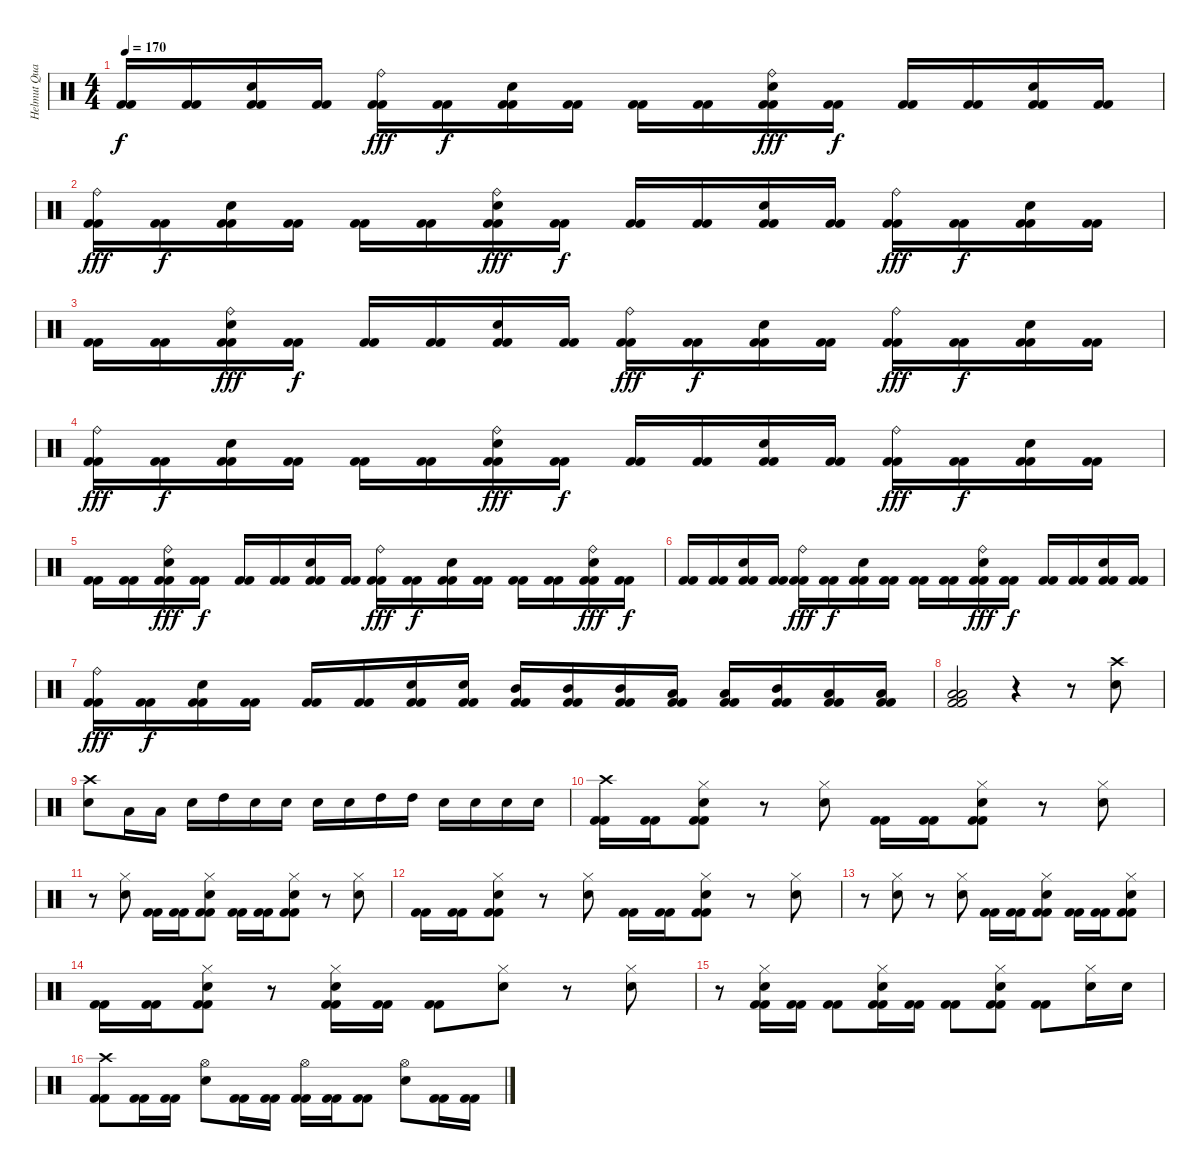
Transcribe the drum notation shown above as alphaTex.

\track ("Helmut Quacken" "Helmut Qua") {instrument percussion}
\staff {score}
\articulation defaults
\ts (4 4)
\tempo 170
\clef neutral
\ks c
("Kick (hit) 2" "Kick (hit) 2").16{dy f} ("Kick (hit) 2" "Kick (hit) 2").16 ("Electric Snare (hit)" "Kick (hit) 2" "Kick (hit) 2").16 ("Kick (hit) 2" "Kick (hit) 2").16 ("Ride (bell)" "Kick (hit) 2" "Kick (hit) 2").16{dy fff} ("Kick (hit) 2" "Kick (hit) 2").16{dy f} ("Electric Snare (hit)" "Kick (hit) 2" "Kick (hit) 2").16 ("Kick (hit) 2" "Kick (hit) 2").16 ("Kick (hit) 2" "Kick (hit) 2").16 ("Kick (hit) 2" "Kick (hit) 2").16 ("Ride (bell)" "Electric Snare (hit)" "Kick (hit) 2" "Kick (hit) 2").16{dy fff} ("Kick (hit) 2" "Kick (hit) 2").16{dy f} ("Kick (hit) 2" "Kick (hit) 2").16 ("Kick (hit) 2" "Kick (hit) 2").16 ("Electric Snare (hit)" "Kick (hit) 2" "Kick (hit) 2").16 ("Kick (hit) 2" "Kick (hit) 2").16 |
("Ride (bell)" "Kick (hit) 2" "Kick (hit) 2").16{dy fff} ("Kick (hit) 2" "Kick (hit) 2").16{dy f} ("Electric Snare (hit)" "Kick (hit) 2" "Kick (hit) 2").16 ("Kick (hit) 2" "Kick (hit) 2").16 ("Kick (hit) 2" "Kick (hit) 2").16 ("Kick (hit) 2" "Kick (hit) 2").16 ("Ride (bell)" "Electric Snare (hit)" "Kick (hit) 2" "Kick (hit) 2").16{dy fff} ("Kick (hit) 2" "Kick (hit) 2").16{dy f} ("Kick (hit) 2" "Kick (hit) 2").16 ("Kick (hit) 2" "Kick (hit) 2").16 ("Electric Snare (hit)" "Kick (hit) 2" "Kick (hit) 2").16 ("Kick (hit) 2" "Kick (hit) 2").16 ("Ride (bell)" "Kick (hit) 2" "Kick (hit) 2").16{dy fff} ("Kick (hit) 2" "Kick (hit) 2").16{dy f} ("Electric Snare (hit)" "Kick (hit) 2" "Kick (hit) 2").16 ("Kick (hit) 2" "Kick (hit) 2").16 |
("Kick (hit) 2" "Kick (hit) 2").16 ("Kick (hit) 2" "Kick (hit) 2").16 ("Ride (bell)" "Electric Snare (hit)" "Kick (hit) 2" "Kick (hit) 2").16{dy fff} ("Kick (hit) 2" "Kick (hit) 2").16{dy f} ("Kick (hit) 2" "Kick (hit) 2").16 ("Kick (hit) 2" "Kick (hit) 2").16 ("Electric Snare (hit)" "Kick (hit) 2" "Kick (hit) 2").16 ("Kick (hit) 2" "Kick (hit) 2").16 ("Ride (bell)" "Kick (hit) 2" "Kick (hit) 2").16{dy fff} ("Kick (hit) 2" "Kick (hit) 2").16{dy f} ("Electric Snare (hit)" "Kick (hit) 2" "Kick (hit) 2").16 ("Kick (hit) 2" "Kick (hit) 2").16 ("Ride (bell)" "Kick (hit) 2" "Kick (hit) 2").16{dy fff} ("Kick (hit) 2" "Kick (hit) 2").16{dy f} ("Electric Snare (hit)" "Kick (hit) 2" "Kick (hit) 2").16 ("Kick (hit) 2" "Kick (hit) 2").16 |
("Ride (bell)" "Kick (hit) 2" "Kick (hit) 2").16{dy fff} ("Kick (hit) 2" "Kick (hit) 2").16{dy f} ("Electric Snare (hit)" "Kick (hit) 2" "Kick (hit) 2").16 ("Kick (hit) 2" "Kick (hit) 2").16 ("Kick (hit) 2" "Kick (hit) 2").16 ("Kick (hit) 2" "Kick (hit) 2").16 ("Ride (bell)" "Electric Snare (hit)" "Kick (hit) 2" "Kick (hit) 2").16{dy fff} ("Kick (hit) 2" "Kick (hit) 2").16{dy f} ("Kick (hit) 2" "Kick (hit) 2").16 ("Kick (hit) 2" "Kick (hit) 2").16 ("Electric Snare (hit)" "Kick (hit) 2" "Kick (hit) 2").16 ("Kick (hit) 2" "Kick (hit) 2").16 ("Ride (bell)" "Kick (hit) 2" "Kick (hit) 2").16{dy fff} ("Kick (hit) 2" "Kick (hit) 2").16{dy f} ("Electric Snare (hit)" "Kick (hit) 2" "Kick (hit) 2").16 ("Kick (hit) 2" "Kick (hit) 2").16 |
("Kick (hit) 2" "Kick (hit) 2").16 ("Kick (hit) 2" "Kick (hit) 2").16 ("Ride (bell)" "Electric Snare (hit)" "Kick (hit) 2" "Kick (hit) 2").16{dy fff} ("Kick (hit) 2" "Kick (hit) 2").16{dy f} ("Kick (hit) 2" "Kick (hit) 2").16 ("Kick (hit) 2" "Kick (hit) 2").16 ("Electric Snare (hit)" "Kick (hit) 2" "Kick (hit) 2").16 ("Kick (hit) 2" "Kick (hit) 2").16 ("Ride (bell)" "Kick (hit) 2" "Kick (hit) 2").16{dy fff} ("Kick (hit) 2" "Kick (hit) 2").16{dy f} ("Electric Snare (hit)" "Kick (hit) 2" "Kick (hit) 2").16 ("Kick (hit) 2" "Kick (hit) 2").16 ("Kick (hit) 2" "Kick (hit) 2").16 ("Kick (hit) 2" "Kick (hit) 2").16 ("Ride (bell)" "Electric Snare (hit)" "Kick (hit) 2" "Kick (hit) 2").16{dy fff} ("Kick (hit) 2" "Kick (hit) 2").16{dy f} |
("Kick (hit) 2" "Kick (hit) 2").16 ("Kick (hit) 2" "Kick (hit) 2").16 ("Electric Snare (hit)" "Kick (hit) 2" "Kick (hit) 2").16 ("Kick (hit) 2" "Kick (hit) 2").16 ("Ride (bell)" "Kick (hit) 2" "Kick (hit) 2").16{dy fff} ("Kick (hit) 2" "Kick (hit) 2").16{dy f} ("Electric Snare (hit)" "Kick (hit) 2" "Kick (hit) 2").16 ("Kick (hit) 2" "Kick (hit) 2").16 ("Kick (hit) 2" "Kick (hit) 2").16 ("Kick (hit) 2" "Kick (hit) 2").16 ("Ride (bell)" "Electric Snare (hit)" "Kick (hit) 2" "Kick (hit) 2").16{dy fff} ("Kick (hit) 2" "Kick (hit) 2").16{dy f} ("Kick (hit) 2" "Kick (hit) 2").16 ("Kick (hit) 2" "Kick (hit) 2").16 ("Electric Snare (hit)" "Kick (hit) 2" "Kick (hit) 2").16 ("Kick (hit) 2" "Kick (hit) 2").16 |
("Ride (bell)" "Kick (hit) 2" "Kick (hit) 2").16{dy fff} ("Kick (hit) 2" "Kick (hit) 2").16{dy f} ("Electric Snare (hit)" "Kick (hit) 2" "Kick (hit) 2").16 ("Kick (hit) 2" "Kick (hit) 2").16 ("Kick (hit) 2" "Kick (hit) 2").16 ("Kick (hit) 2" "Kick (hit) 2").16 ("Electric Snare (hit)" "Kick (hit) 2" "Kick (hit) 2").16 ("Electric Snare (hit)" "Kick (hit) 2" "Kick (hit) 2").16 ("Mid Tom (hit)" "Kick (hit) 2" "Kick (hit) 2").16 ("Mid Tom (hit)" "Kick (hit) 2" "Kick (hit) 2").16 ("Mid Tom (hit)" "Kick (hit) 2" "Kick (hit) 2").16 ("Low Tom (hit)" "Kick (hit) 2" "Kick (hit) 2").16 ("Low Tom (hit)" "Kick (hit) 2" "Kick (hit) 2").16 ("Mid Tom (hit)" "Kick (hit) 2" "Kick (hit) 2").16 ("Low Tom (hit)" "Kick (hit) 2" "Kick (hit) 2").16 ("Low Tom (hit)" "Kick (hit) 2" "Kick (hit) 2").16 |
("Low Tom (hit)" "Low Tom (hit)" "Kick (hit) 2" "Kick (hit) 2").2 r.4 r.8 ("Crash high (hit)" "Electric Snare (hit)").8 |
("Crash high (hit)" "Electric Snare (hit)").8 "Low Tom (hit)".16 "Low Tom (hit)".16 "Electric Snare (hit)".16 "High Tom (hit)".16 "Electric Snare (hit)".16 "Electric Snare (hit)".16 "Electric Snare (hit)".16 "Electric Snare (hit)".16 "High Tom (hit)".16 "High Tom (hit)".16 "Electric Snare (hit)".16 "Electric Snare (hit)".16 "Electric Snare (hit)".16 "Electric Snare (hit)".16 |
("Crash high (hit)" "Kick (hit) 2" "Kick (hit) 2").16 ("Kick (hit) 2" "Kick (hit) 2").16 ("Hi-Hat (closed)" "Electric Snare (hit)" "Kick (hit) 2" "Kick (hit) 2").8 r.8 ("Hi-Hat (closed)" "Electric Snare (hit)").8 ("Kick (hit) 2" "Kick (hit) 2").16 ("Kick (hit) 2" "Kick (hit) 2").16 ("Hi-Hat (closed)" "Electric Snare (hit)" "Kick (hit) 2" "Kick (hit) 2").8 r.8 ("Hi-Hat (closed)" "Electric Snare (hit)").8 |
r.8 ("Hi-Hat (closed)" "Electric Snare (hit)").8 ("Kick (hit) 2" "Kick (hit) 2").16 ("Kick (hit) 2" "Kick (hit) 2").16 ("Hi-Hat (closed)" "Electric Snare (hit)" "Kick (hit) 2" "Kick (hit) 2").8 ("Kick (hit) 2" "Kick (hit) 2").16 ("Kick (hit) 2" "Kick (hit) 2").16 ("Hi-Hat (closed)" "Electric Snare (hit)" "Kick (hit) 2" "Kick (hit) 2").8 r.8 ("Hi-Hat (closed)" "Electric Snare (hit)").8 |
("Kick (hit) 2" "Kick (hit) 2").16 ("Kick (hit) 2" "Kick (hit) 2").16 ("Hi-Hat (closed)" "Electric Snare (hit)" "Kick (hit) 2" "Kick (hit) 2").8 r.8 ("Hi-Hat (closed)" "Electric Snare (hit)").8 ("Kick (hit) 2" "Kick (hit) 2").16 ("Kick (hit) 2" "Kick (hit) 2").16 ("Hi-Hat (closed)" "Electric Snare (hit)" "Kick (hit) 2" "Kick (hit) 2").8 r.8 ("Hi-Hat (closed)" "Electric Snare (hit)").8 |
r.8 ("Hi-Hat (closed)" "Electric Snare (hit)").8 r.8 ("Hi-Hat (closed)" "Electric Snare (hit)").8 ("Kick (hit) 2" "Kick (hit) 2").16 ("Kick (hit) 2" "Kick (hit) 2").16 ("Hi-Hat (closed)" "Electric Snare (hit)" "Kick (hit) 2" "Kick (hit) 2").8 ("Kick (hit) 2" "Kick (hit) 2").16 ("Kick (hit) 2" "Kick (hit) 2").16 ("Hi-Hat (closed)" "Electric Snare (hit)" "Kick (hit) 2" "Kick (hit) 2").8 |
("Kick (hit) 2" "Kick (hit) 2").16 ("Kick (hit) 2" "Kick (hit) 2").16 ("Hi-Hat (closed)" "Electric Snare (hit)" "Kick (hit) 2" "Kick (hit) 2").8 r.8 ("Hi-Hat (closed)" "Electric Snare (hit)" "Kick (hit) 2" "Kick (hit) 2").16 ("Kick (hit) 2" "Kick (hit) 2").16 ("Kick (hit) 2" "Kick (hit) 2").8 ("Hi-Hat (closed)" "Electric Snare (hit)").8 r.8 ("Hi-Hat (closed)" "Electric Snare (hit)").8 |
r.8 ("Hi-Hat (closed)" "Electric Snare (hit)" "Kick (hit) 2" "Kick (hit) 2").16 ("Kick (hit) 2" "Kick (hit) 2").16 ("Kick (hit) 2" "Kick (hit) 2").8 ("Hi-Hat (closed)" "Electric Snare (hit)" "Kick (hit) 2" "Kick (hit) 2").16 ("Kick (hit) 2" "Kick (hit) 2").16 ("Kick (hit) 2" "Kick (hit) 2").8 ("Hi-Hat (closed)" "Electric Snare (hit)" "Kick (hit) 2" "Kick (hit) 2").8 ("Kick (hit) 2" "Kick (hit) 2").8 ("Hi-Hat (closed)" "Electric Snare (hit)").16 "Electric Snare (hit)".16 |
("Crash high (hit)" "Kick (hit) 2" "Kick (hit) 2").8 ("Kick (hit) 2" "Kick (hit) 2").16 ("Kick (hit) 2" "Kick (hit) 2").16 ("Hi-Hat (open)" "Electric Snare (hit)").8 ("Kick (hit) 2" "Kick (hit) 2").16 ("Kick (hit) 2" "Kick (hit) 2").16 ("Hi-Hat (open)" "Kick (hit) 2" "Kick (hit) 2").16 ("Kick (hit) 2" "Kick (hit) 2").16 ("Kick (hit) 2" "Kick (hit) 2").8 ("Hi-Hat (open)" "Electric Snare (hit)").8 ("Kick (hit) 2" "Kick (hit) 2").16 ("Kick (hit) 2" "Kick (hit) 2").16
